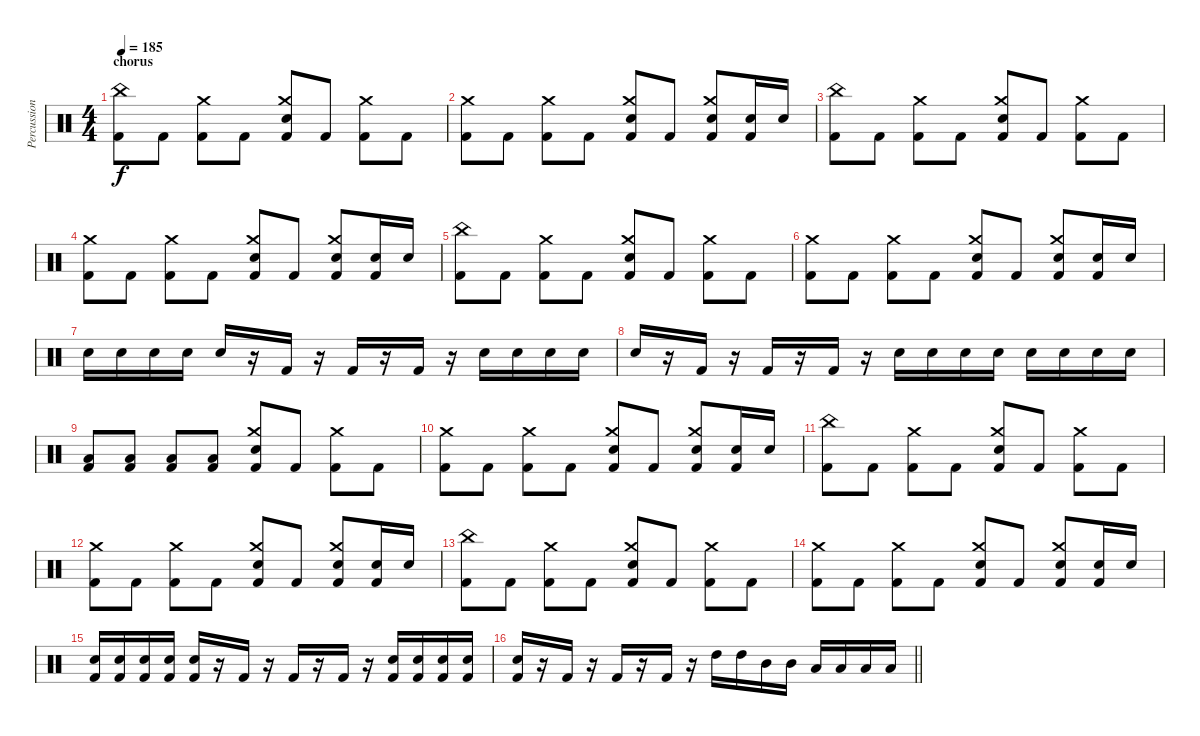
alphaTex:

\track ("Percussion" "Percussion") {instrument percussion}
\staff {score}
\articulation defaults
\ts (4 4)
\section ("" "chorus")
\tempo 185
\clef neutral
\ks c
("China (hit)" "Kick (hit) 2").8{dy f} "Kick (hit) 2".8 ("Crash medium (hit)" "Kick (hit) 2").8 "Kick (hit) 2".8 ("Crash medium (hit)" "Electric Snare (hit)" "Kick (hit) 2").8 "Kick (hit) 2".8 ("Crash medium (hit)" "Kick (hit) 2").8 "Kick (hit) 2".8 |
("Crash medium (hit)" "Kick (hit) 2").8 "Kick (hit) 2".8 ("Crash medium (hit)" "Kick (hit) 2").8 "Kick (hit) 2".8 ("Crash medium (hit)" "Electric Snare (hit)" "Kick (hit) 2").8 "Kick (hit) 2".8 ("Crash medium (hit)" "Electric Snare (hit)" "Kick (hit) 2").8 ("Electric Snare (hit)" "Kick (hit) 2").16 "Electric Snare (hit)".16 |
("China (hit)" "Kick (hit) 2").8 "Kick (hit) 2".8 ("Crash medium (hit)" "Kick (hit) 2").8 "Kick (hit) 2".8 ("Crash medium (hit)" "Electric Snare (hit)" "Kick (hit) 2").8 "Kick (hit) 2".8 ("Crash medium (hit)" "Kick (hit) 2").8 "Kick (hit) 2".8 |
("Crash medium (hit)" "Kick (hit) 2").8 "Kick (hit) 2".8 ("Crash medium (hit)" "Kick (hit) 2").8 "Kick (hit) 2".8 ("Crash medium (hit)" "Electric Snare (hit)" "Kick (hit) 2").8 "Kick (hit) 2".8 ("Crash medium (hit)" "Electric Snare (hit)" "Kick (hit) 2").8 ("Electric Snare (hit)" "Kick (hit) 2").16 "Electric Snare (hit)".16 |
("China (hit)" "Kick (hit) 2").8 "Kick (hit) 2".8 ("Crash medium (hit)" "Kick (hit) 2").8 "Kick (hit) 2".8 ("Crash medium (hit)" "Electric Snare (hit)" "Kick (hit) 2").8 "Kick (hit) 2".8 ("Crash medium (hit)" "Kick (hit) 2").8 "Kick (hit) 2".8 |
("Crash medium (hit)" "Kick (hit) 2").8 "Kick (hit) 2".8 ("Crash medium (hit)" "Kick (hit) 2").8 "Kick (hit) 2".8 ("Crash medium (hit)" "Electric Snare (hit)" "Kick (hit) 2").8 "Kick (hit) 2".8 ("Crash medium (hit)" "Electric Snare (hit)" "Kick (hit) 2").8 ("Electric Snare (hit)" "Kick (hit) 2").16 "Electric Snare (hit)".16 |
"Electric Snare (hit)".16 "Electric Snare (hit)".16 "Electric Snare (hit)".16 "Electric Snare (hit)".16 "Electric Snare (hit)".16 r.16 "Kick (hit) 2".16 r.16 "Kick (hit) 2".16 r.16 "Kick (hit) 2".16 r.16 "Electric Snare (hit)".16 "Electric Snare (hit)".16 "Electric Snare (hit)".16 "Electric Snare (hit)".16 |
"Electric Snare (hit)".16 r.16 "Kick (hit) 2".16 r.16 "Kick (hit) 2".16 r.16 "Kick (hit) 2".16 r.16 "Electric Snare (hit)".16 "Electric Snare (hit)".16 "Electric Snare (hit)".16 "Electric Snare (hit)".16 "Electric Snare (hit)".16 "Electric Snare (hit)".16 "Electric Snare (hit)".16 "Electric Snare (hit)".16 |
("Low Tom (hit)" "Kick (hit) 2").8 ("Low Tom (hit)" "Kick (hit) 2").8 ("Low Floor Tom (hit)" "Kick (hit) 2").8 ("Low Floor Tom (hit)" "Kick (hit) 2").8 ("Crash medium (hit)" "Electric Snare (hit)" "Kick (hit) 2").8 "Kick (hit) 2".8 ("Crash medium (hit)" "Kick (hit) 2").8 "Kick (hit) 2".8 |
("Crash medium (hit)" "Kick (hit) 2").8 "Kick (hit) 2".8 ("Crash medium (hit)" "Kick (hit) 2").8 "Kick (hit) 2".8 ("Crash medium (hit)" "Electric Snare (hit)" "Kick (hit) 2").8 "Kick (hit) 2".8 ("Crash medium (hit)" "Electric Snare (hit)" "Kick (hit) 2").8 ("Electric Snare (hit)" "Kick (hit) 2").16 "Electric Snare (hit)".16 |
("China (hit)" "Kick (hit) 2").8 "Kick (hit) 2".8 ("Crash medium (hit)" "Kick (hit) 2").8 "Kick (hit) 2".8 ("Crash medium (hit)" "Electric Snare (hit)" "Kick (hit) 2").8 "Kick (hit) 2".8 ("Crash medium (hit)" "Kick (hit) 2").8 "Kick (hit) 2".8 |
("Crash medium (hit)" "Kick (hit) 2").8 "Kick (hit) 2".8 ("Crash medium (hit)" "Kick (hit) 2").8 "Kick (hit) 2".8 ("Crash medium (hit)" "Electric Snare (hit)" "Kick (hit) 2").8 "Kick (hit) 2".8 ("Crash medium (hit)" "Electric Snare (hit)" "Kick (hit) 2").8 ("Electric Snare (hit)" "Kick (hit) 2").16 "Electric Snare (hit)".16 |
("China (hit)" "Kick (hit) 2").8 "Kick (hit) 2".8 ("Crash medium (hit)" "Kick (hit) 2").8 "Kick (hit) 2".8 ("Crash medium (hit)" "Electric Snare (hit)" "Kick (hit) 2").8 "Kick (hit) 2".8 ("Crash medium (hit)" "Kick (hit) 2").8 "Kick (hit) 2".8 |
("Crash medium (hit)" "Kick (hit) 2").8 "Kick (hit) 2".8 ("Crash medium (hit)" "Kick (hit) 2").8 "Kick (hit) 2".8 ("Crash medium (hit)" "Electric Snare (hit)" "Kick (hit) 2").8 "Kick (hit) 2".8 ("Crash medium (hit)" "Electric Snare (hit)" "Kick (hit) 2").8 ("Electric Snare (hit)" "Kick (hit) 2").16 "Electric Snare (hit)".16 |
("Electric Snare (hit)" "Kick (hit) 2").16 ("Electric Snare (hit)" "Kick (hit) 2").16 ("Electric Snare (hit)" "Kick (hit) 2").16 ("Electric Snare (hit)" "Kick (hit) 2").16 ("Electric Snare (hit)" "Kick (hit) 2").16 r.16 "Kick (hit) 2".16 r.16 "Kick (hit) 2".16 r.16 "Kick (hit) 2".16 r.16 ("Electric Snare (hit)" "Kick (hit) 2").16 ("Electric Snare (hit)" "Kick (hit) 2").16 ("Electric Snare (hit)" "Kick (hit) 2").16 ("Electric Snare (hit)" "Kick (hit) 2").16 |
\barLineRight lightlight
("Electric Snare (hit)" "Kick (hit) 2").16 r.16 "Kick (hit) 2".16 r.16 "Kick (hit) 2".16 r.16 "Kick (hit) 2".16 r.16 "High Tom (hit)".16 "High Tom (hit)".16 "Mid Tom (hit)".16 "Mid Tom (hit)".16 "Low Tom (hit)".16 "Low Tom (hit)".16 "Low Floor Tom (hit)".16 "Low Floor Tom (hit)".16
